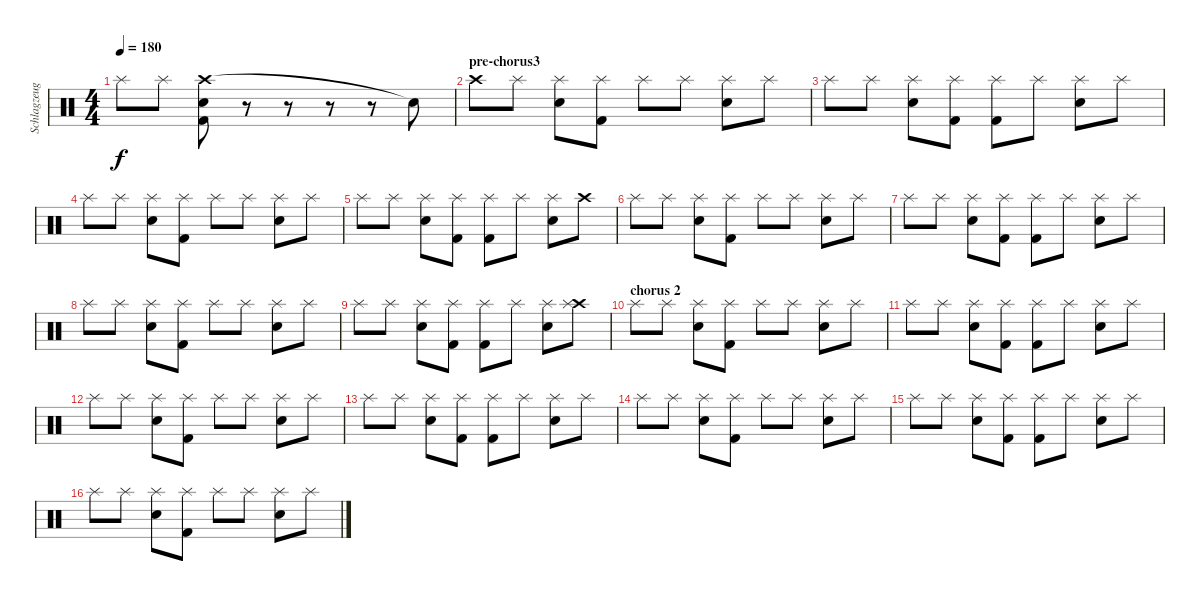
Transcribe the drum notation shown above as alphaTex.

\track ("Schlagzeug" "Schlagzeug") {instrument percussion}
\staff {score}
\articulation defaults
\ts (4 4)
\tempo 180
\clef neutral
\ks c "Splash (hit)".8{dy f} "Splash (hit)".8
("Crash high (hit)" "Electric Snare (hit)" "Kick (hit) 2").8 r.8 r.8 r.8 r.8 "Snare (hit)"{t}.8 |
\section ("" "pre-chorus3")
"Crash high (hit)".8 "Splash (hit)".8 ("Splash (hit)" "Electric Snare (hit)").8 ("Splash (hit)" "Kick (hit) 2").8 "Splash (hit)".8 "Splash (hit)".8 ("Splash (hit)" "Electric Snare (hit)").8 "Splash (hit)".8 |
"Splash (hit)".8 "Splash (hit)".8 ("Splash (hit)" "Electric Snare (hit)").8 ("Splash (hit)" "Kick (hit) 2").8 ("Splash (hit)" "Kick (hit) 2").8 "Splash (hit)".8 ("Splash (hit)" "Electric Snare (hit)").8 "Splash (hit)".8 |
"Splash (hit)".8 "Splash (hit)".8 ("Splash (hit)" "Electric Snare (hit)").8 ("Splash (hit)" "Kick (hit) 2").8 "Splash (hit)".8 "Splash (hit)".8 ("Splash (hit)" "Electric Snare (hit)").8 "Splash (hit)".8 |
"Splash (hit)".8 "Splash (hit)".8 ("Splash (hit)" "Electric Snare (hit)").8 ("Splash (hit)" "Kick (hit) 2").8 ("Splash (hit)" "Kick (hit) 2").8 "Splash (hit)".8 ("Splash (hit)" "Electric Snare (hit)").8 "Crash high (hit)".8 |
"Splash (hit)".8 "Splash (hit)".8 ("Splash (hit)" "Electric Snare (hit)").8 ("Splash (hit)" "Kick (hit) 2").8 "Splash (hit)".8 "Splash (hit)".8 ("Splash (hit)" "Electric Snare (hit)").8 "Splash (hit)".8 |
"Splash (hit)".8 "Splash (hit)".8 ("Splash (hit)" "Electric Snare (hit)").8 ("Splash (hit)" "Kick (hit) 2").8 ("Splash (hit)" "Kick (hit) 2").8 "Splash (hit)".8 ("Splash (hit)" "Electric Snare (hit)").8 "Splash (hit)".8 |
"Splash (hit)".8 "Splash (hit)".8 ("Splash (hit)" "Electric Snare (hit)").8 ("Splash (hit)" "Kick (hit) 2").8 "Splash (hit)".8 "Splash (hit)".8 ("Splash (hit)" "Electric Snare (hit)").8 "Splash (hit)".8 |
"Splash (hit)".8 "Splash (hit)".8 ("Splash (hit)" "Electric Snare (hit)").8 ("Splash (hit)" "Kick (hit) 2").8 ("Splash (hit)" "Kick (hit) 2").8 "Splash (hit)".8 ("Splash (hit)" "Electric Snare (hit)").8 ("Crash high (hit)" "Splash (hit)").8 |
\section ("" "chorus 2")
"Splash (hit)".8 "Splash (hit)".8 ("Splash (hit)" "Electric Snare (hit)").8 ("Splash (hit)" "Kick (hit) 2").8 "Splash (hit)".8 "Splash (hit)".8 ("Splash (hit)" "Electric Snare (hit)").8 "Splash (hit)".8 |
"Splash (hit)".8 "Splash (hit)".8 ("Splash (hit)" "Electric Snare (hit)").8 ("Splash (hit)" "Kick (hit) 2").8 ("Splash (hit)" "Kick (hit) 2").8 "Splash (hit)".8 ("Splash (hit)" "Electric Snare (hit)").8 "Splash (hit)".8 |
"Splash (hit)".8 "Splash (hit)".8 ("Splash (hit)" "Electric Snare (hit)").8 ("Splash (hit)" "Kick (hit) 2").8 "Splash (hit)".8 "Splash (hit)".8 ("Splash (hit)" "Electric Snare (hit)").8 "Splash (hit)".8 |
"Splash (hit)".8 "Splash (hit)".8 ("Splash (hit)" "Electric Snare (hit)").8 ("Splash (hit)" "Kick (hit) 2").8 ("Splash (hit)" "Kick (hit) 2").8 "Splash (hit)".8 ("Splash (hit)" "Electric Snare (hit)").8 "Splash (hit)".8 |
"Splash (hit)".8 "Splash (hit)".8 ("Splash (hit)" "Electric Snare (hit)").8 ("Splash (hit)" "Kick (hit) 2").8 "Splash (hit)".8 "Splash (hit)".8 ("Splash (hit)" "Electric Snare (hit)").8 "Splash (hit)".8 |
"Splash (hit)".8 "Splash (hit)".8 ("Splash (hit)" "Electric Snare (hit)").8 ("Splash (hit)" "Kick (hit) 2").8 ("Splash (hit)" "Kick (hit) 2").8 "Splash (hit)".8 ("Splash (hit)" "Electric Snare (hit)").8 "Splash (hit)".8 |
"Splash (hit)".8 "Splash (hit)".8 ("Splash (hit)" "Electric Snare (hit)").8 ("Splash (hit)" "Kick (hit) 2").8 "Splash (hit)".8 "Splash (hit)".8 ("Splash (hit)" "Electric Snare (hit)").8 "Splash (hit)".8
